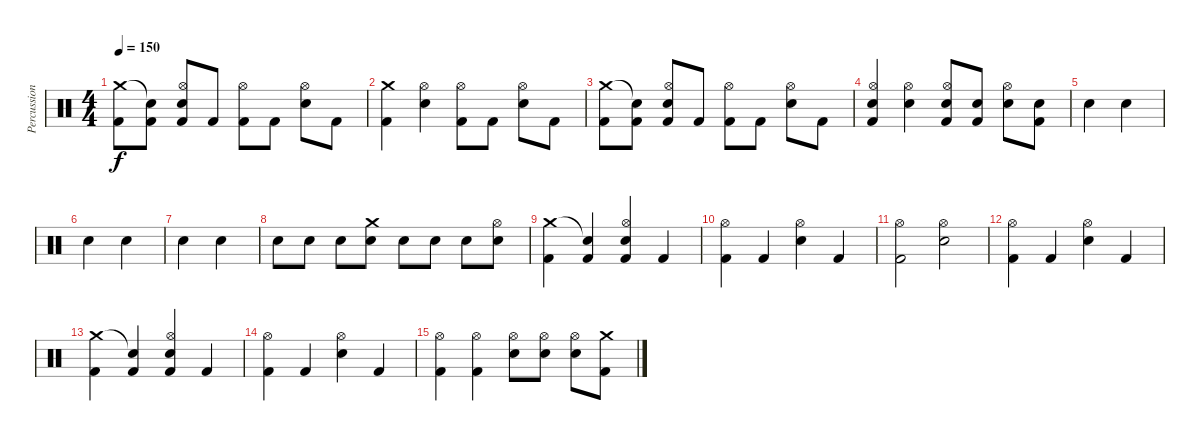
\track ("Percussion" "Percussion") {instrument percussion}
\staff {score}
\articulation defaults
\ts (4 4)
\tempo 150
\clef neutral
\ks c
("Crash medium (hit)" "Kick (hit) 2").8{dy f} ("Snare (hit)"{t} "Kick (hit) 2").8 ("Hi-Hat (open)" "Electric Snare (hit)" "Kick (hit) 2").8 "Kick (hit) 2".8 ("Hi-Hat (open)" "Kick (hit) 2").8 "Kick (hit) 2".8 ("Hi-Hat (open)" "Electric Snare (hit)").8 "Kick (hit) 2".8 |
("Crash medium (hit)" "Kick (hit) 2").4 ("Hi-Hat (open)" "Electric Snare (hit)").4 ("Hi-Hat (open)" "Kick (hit) 2").8 "Kick (hit) 2".8 ("Hi-Hat (open)" "Electric Snare (hit)").8 "Kick (hit) 2".8 |
("Crash medium (hit)" "Kick (hit) 2").8 ("Snare (hit)"{t} "Kick (hit) 2").8 ("Hi-Hat (open)" "Electric Snare (hit)" "Kick (hit) 2").8 "Kick (hit) 2".8 ("Hi-Hat (open)" "Kick (hit) 2").8 "Kick (hit) 2".8 ("Hi-Hat (open)" "Electric Snare (hit)").8 "Kick (hit) 2".8 |
("Hi-Hat (open)" "Electric Snare (hit)" "Kick (hit) 2").4 ("Hi-Hat (open)" "Electric Snare (hit)").4 ("Hi-Hat (open)" "Electric Snare (hit)" "Kick (hit) 2").8 ("Electric Snare (hit)" "Kick (hit) 2").8 ("Hi-Hat (open)" "Electric Snare (hit)").8 ("Electric Snare (hit)" "Kick (hit) 2").8 |
"Electric Snare (hit)".4 "Electric Snare (hit)".4 |
"Electric Snare (hit)".4 "Electric Snare (hit)".4 |
"Electric Snare (hit)".4 "Electric Snare (hit)".4 |
"Electric Snare (hit)".8 "Electric Snare (hit)".8 "Electric Snare (hit)".8 ("Crash medium (hit)" "Electric Snare (hit)").8 "Electric Snare (hit)".8 "Electric Snare (hit)".8 "Electric Snare (hit)".8 ("Hi-Hat (open)" "Electric Snare (hit)").8 |
("Crash medium (hit)" "Kick (hit) 2").4 ("Snare (hit)"{t} "Kick (hit) 2").4 ("Hi-Hat (open)" "Electric Snare (hit)" "Kick (hit) 2").4 "Kick (hit) 2".4 |
("Hi-Hat (open)" "Kick (hit) 2").4 "Kick (hit) 2".4 ("Hi-Hat (open)" "Electric Snare (hit)").4 "Kick (hit) 2".4 |
("Hi-Hat (open)" "Kick (hit) 2").2 ("Hi-Hat (open)" "Electric Snare (hit)").2 |
("Hi-Hat (open)" "Kick (hit) 2").4 "Kick (hit) 2".4 ("Hi-Hat (open)" "Electric Snare (hit)").4 "Kick (hit) 2".4 |
("Crash medium (hit)" "Kick (hit) 2").4 ("Snare (hit)"{t} "Kick (hit) 2").4 ("Hi-Hat (open)" "Electric Snare (hit)" "Kick (hit) 2").4 "Kick (hit) 2".4 |
("Hi-Hat (open)" "Kick (hit) 2").4 "Kick (hit) 2".4 ("Hi-Hat (open)" "Electric Snare (hit)").4 "Kick (hit) 2".4 |
("Hi-Hat (open)" "Kick (hit) 2").4 ("Hi-Hat (open)" "Kick (hit) 2").4 ("Hi-Hat (open)" "Electric Snare (hit)").8 ("Hi-Hat (open)" "Electric Snare (hit)").8 ("Hi-Hat (open)" "Electric Snare (hit)").8 ("Crash medium (hit)" "Kick (hit) 2").8
